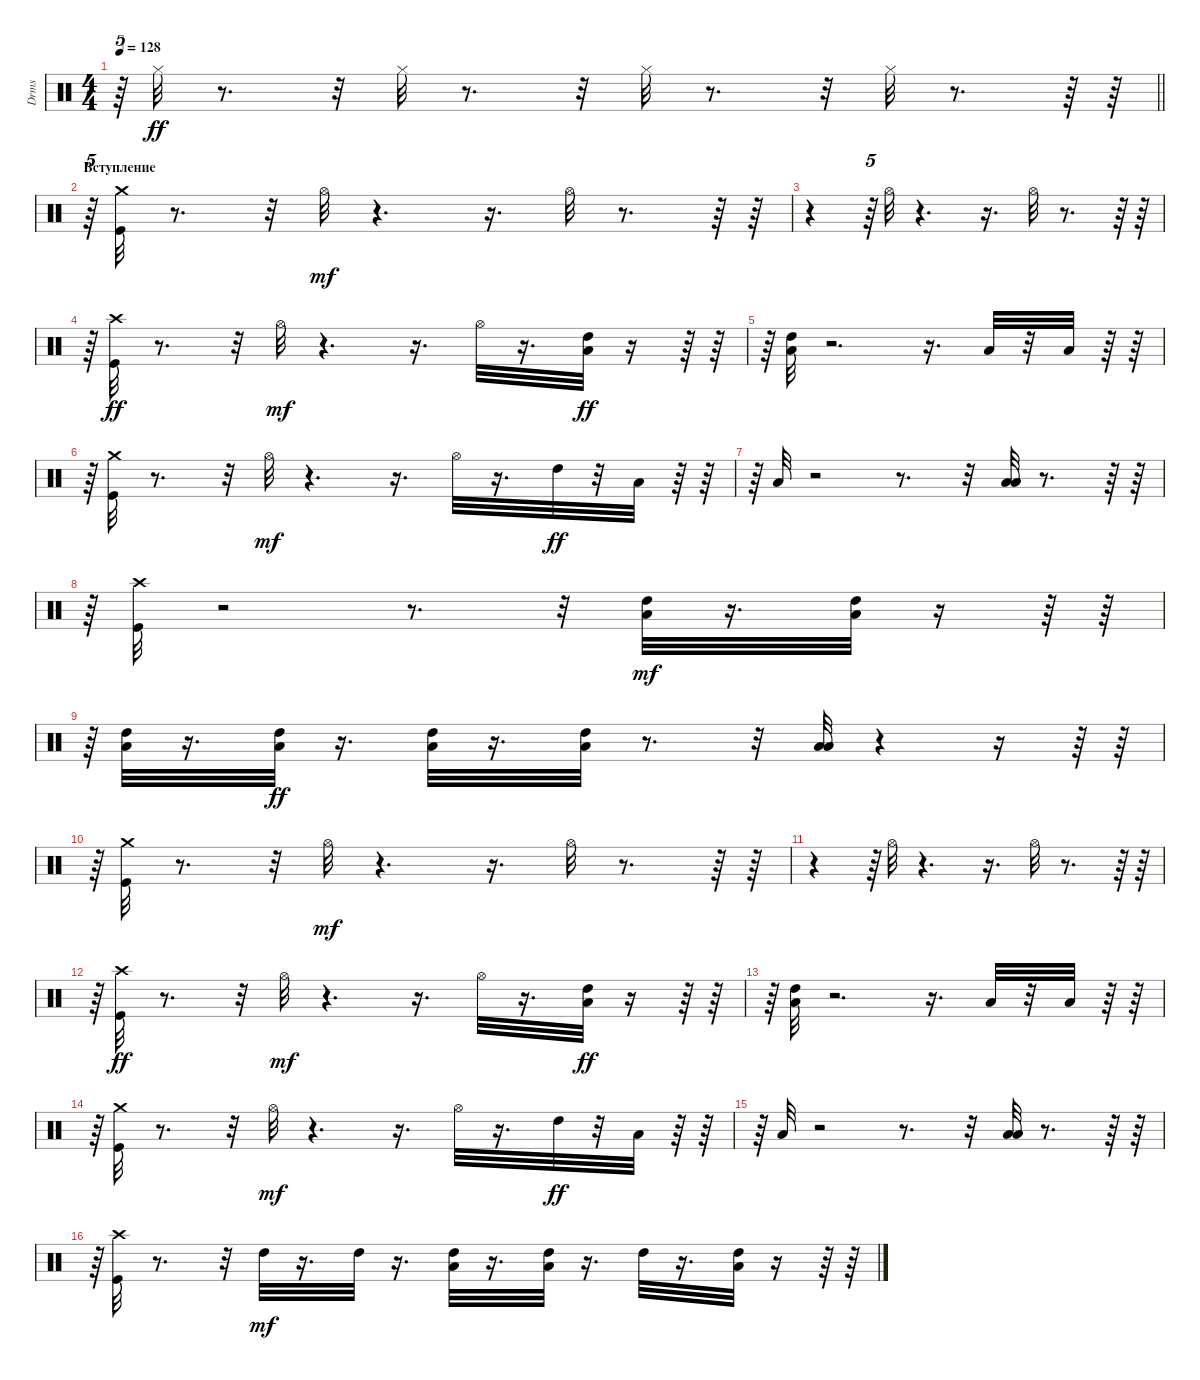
\track ("Drms" "Drms") {instrument percussion}
\staff {score}
\articulation defaults
\ts (4 4)
\tempo 128
\clef neutral
\barLineRight lightlight
\ks c
r.64{tu (5 4) dy ff} "Hi-Hat (closed)".32 r.8{d} r.32 "Hi-Hat (closed)".32 r.8{d} r.32 "Hi-Hat (closed)".32 r.8{d} r.32 "Hi-Hat (closed)".32 r.8{d} r.64 r.64 |
\section ("" "Вступление")
r.64{tu (5 4)} ("Kick (hit)" "Crash medium (hit)").32 r.8{d} r.32 "Hi-Hat (open)".32{dy mf} r.4{d} r.16{d} "Hi-Hat (open)".32 r.8{d} r.64 r.64 |
r.4 r.64{tu (5 4)} "Hi-Hat (open)".32 r.4{d} r.16{d} "Hi-Hat (open)".32 r.8{d} r.64 r.64 |
r.64{tu (5 4)} ("Crash high (hit)" "Kick (hit)").32{dy ff} r.8{d} r.32 "Hi-Hat (open)".32{dy mf} r.4{d} r.16{d} "Hi-Hat (open)".32 r.16{d} ("Low Tom (hit)" "High Tom (hit)").32{dy ff} r.16 r.64 r.64 |
r.64{tu (5 4)} ("Low Tom (hit)" "High Tom (hit)").32 r.2{d} r.16{d} "Low Tom (hit)".32 r.32 "Low Floor Tom (hit)".32 r.64 r.64 |
r.64{tu (5 4)} ("Kick (hit)" "Crash medium (hit)").32 r.8{d} r.32 "Hi-Hat (open)".32{dy mf} r.4{d} r.16{d} "Hi-Hat (open)".32 r.16{d} "High Tom (hit)".32{dy ff} r.32 "Low Tom (hit)".32 r.64 r.64 |
r.64{tu (5 4)} "Low Floor Tom (hit)".32 r.2 r.8{d} r.32 ("Low Floor Tom (hit)" "Low Tom (hit)").32 r.8{d} r.64 r.64 |
r.64{tu (5 4)} ("Crash high (hit)" "Kick (hit)").32 r.2 r.8{d} r.32 ("Low Tom (hit)" "High Tom (hit)").32{dy mf} r.16{d} ("Low Tom (hit)" "High Tom (hit)").32 r.16 r.64 r.64 |
r.64{tu (5 4)} ("Low Tom (hit)" "High Tom (hit)").32 r.16{d} ("Low Tom (hit)" "High Tom (hit)").32{dy ff} r.16{d} ("Low Tom (hit)" "High Tom (hit)").32 r.16{d} ("High Tom (hit)" "Low Tom (hit)").32 r.8{d} r.32 ("Low Floor Tom (hit)" "Low Tom (hit)").32 r.4 r.16 r.64 r.64 |
r.64{tu (5 4)} ("Kick (hit)" "Crash medium (hit)").32 r.8{d} r.32 "Hi-Hat (open)".32{dy mf} r.4{d} r.16{d} "Hi-Hat (open)".32 r.8{d} r.64 r.64 |
r.4 r.64{tu (5 4)} "Hi-Hat (open)".32 r.4{d} r.16{d} "Hi-Hat (open)".32 r.8{d} r.64 r.64 |
r.64{tu (5 4)} ("Crash high (hit)" "Kick (hit)").32{dy ff} r.8{d} r.32 "Hi-Hat (open)".32{dy mf} r.4{d} r.16{d} "Hi-Hat (open)".32 r.16{d} ("Low Tom (hit)" "High Tom (hit)").32{dy ff} r.16 r.64 r.64 |
r.64{tu (5 4)} ("Low Tom (hit)" "High Tom (hit)").32 r.2{d} r.16{d} "Low Tom (hit)".32 r.32 "Low Floor Tom (hit)".32 r.64 r.64 |
r.64{tu (5 4)} ("Kick (hit)" "Crash medium (hit)").32 r.8{d} r.32 "Hi-Hat (open)".32{dy mf} r.4{d} r.16{d} "Hi-Hat (open)".32 r.16{d} "High Tom (hit)".32{dy ff} r.32 "Low Tom (hit)".32 r.64 r.64 |
r.64{tu (5 4)} "Low Floor Tom (hit)".32 r.2 r.8{d} r.32 ("Low Floor Tom (hit)" "Low Tom (hit)").32 r.8{d} r.64 r.64 |
r.64{tu (5 4)} ("Crash high (hit)" "Kick (hit)").32 r.8{d} r.32 "High Tom (hit)".32{dy mf} r.16{d} "High Tom (hit)".32 r.16{d} ("Low Tom (hit)" "High Tom (hit)").32 r.16{d} ("Low Tom (hit)" "High Tom (hit)").32 r.16{d} "High Tom (hit)".32 r.16{d} ("High Tom (hit)" "Low Tom (hit)").32 r.16 r.64 r.64
